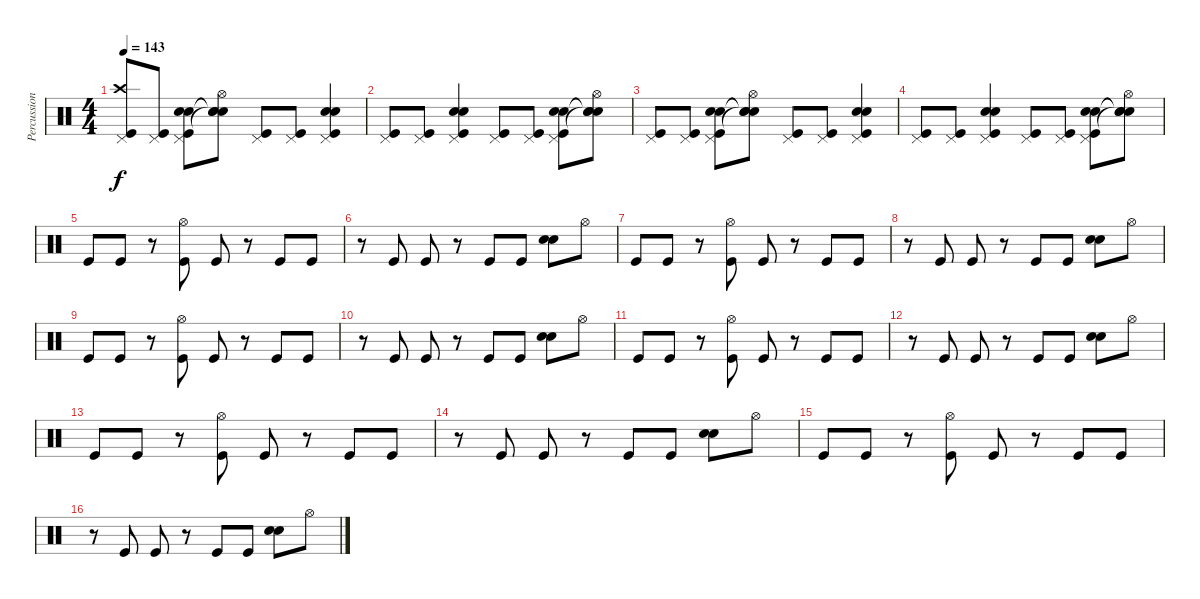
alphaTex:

\track ("Percussions" "Percussion") {instrument percussion}
\staff {score}
\articulation defaults
\ts (4 4)
\tempo 143
\clef neutral
\ks c
("Pedal Hi-Hat (hit)" "Crash high (hit)" "Kick (hit)").8{dy f} ("Pedal Hi-Hat (hit)" "Kick (hit)").8 ("Pedal Hi-Hat (hit)" "Snare (hit) 2" "Snare (hit) 2" "Kick (hit)").8 ("Hi-Hat (open)" "Snare (hit)"{t} "Snare (hit)"{t} "Snare (hit)"{t}).8 ("Pedal Hi-Hat (hit)" "Kick (hit)").8 ("Pedal Hi-Hat (hit)" "Kick (hit)").8 ("Pedal Hi-Hat (hit)" "Snare (hit) 2" "Snare (hit) 2" "Kick (hit)").4 |
("Pedal Hi-Hat (hit)" "Kick (hit)").8 ("Pedal Hi-Hat (hit)" "Kick (hit)").8 ("Pedal Hi-Hat (hit)" "Snare (hit) 2" "Snare (hit) 2" "Kick (hit)").4 ("Pedal Hi-Hat (hit)" "Kick (hit)").8 ("Pedal Hi-Hat (hit)" "Kick (hit)").8 ("Pedal Hi-Hat (hit)" "Snare (hit) 2" "Snare (hit) 2" "Kick (hit)").8 ("Hi-Hat (open)" "Snare (hit)"{t} "Snare (hit)"{t} "Snare (hit)"{t}).8 |
("Pedal Hi-Hat (hit)" "Kick (hit)").8 ("Pedal Hi-Hat (hit)" "Kick (hit)").8 ("Pedal Hi-Hat (hit)" "Snare (hit) 2" "Snare (hit) 2" "Kick (hit)").8 ("Hi-Hat (open)" "Snare (hit)"{t} "Snare (hit)"{t} "Snare (hit)"{t}).8 ("Pedal Hi-Hat (hit)" "Kick (hit)").8 ("Pedal Hi-Hat (hit)" "Kick (hit)").8 ("Pedal Hi-Hat (hit)" "Snare (hit) 2" "Snare (hit) 2" "Kick (hit)").4 |
("Pedal Hi-Hat (hit)" "Kick (hit)").8 ("Pedal Hi-Hat (hit)" "Kick (hit)").8 ("Pedal Hi-Hat (hit)" "Snare (hit) 2" "Snare (hit) 2" "Kick (hit)").4 ("Pedal Hi-Hat (hit)" "Kick (hit)").8 ("Pedal Hi-Hat (hit)" "Kick (hit)").8 ("Pedal Hi-Hat (hit)" "Snare (hit) 2" "Snare (hit) 2" "Kick (hit)").8 ("Hi-Hat (open)" "Snare (hit)"{t} "Snare (hit)"{t} "Snare (hit)"{t}).8 |
"Kick (hit)".8 "Kick (hit)".8 r.8 ("Hi-Hat (open)" "Kick (hit)").8 "Kick (hit)".8 r.8 "Kick (hit)".8 "Kick (hit)".8 |
r.8 "Kick (hit)".8 "Kick (hit)".8 r.8 "Kick (hit)".8 "Kick (hit)".8 ("Snare (hit) 2" "Snare (hit) 2").8 "Hi-Hat (open)".8 |
"Kick (hit)".8 "Kick (hit)".8 r.8 ("Hi-Hat (open)" "Kick (hit)").8 "Kick (hit)".8 r.8 "Kick (hit)".8 "Kick (hit)".8 |
r.8 "Kick (hit)".8 "Kick (hit)".8 r.8 "Kick (hit)".8 "Kick (hit)".8 ("Snare (hit) 2" "Snare (hit) 2").8 "Hi-Hat (open)".8 |
"Kick (hit)".8 "Kick (hit)".8 r.8 ("Hi-Hat (open)" "Kick (hit)").8 "Kick (hit)".8 r.8 "Kick (hit)".8 "Kick (hit)".8 |
r.8 "Kick (hit)".8 "Kick (hit)".8 r.8 "Kick (hit)".8 "Kick (hit)".8 ("Snare (hit) 2" "Snare (hit) 2").8 "Hi-Hat (open)".8 |
"Kick (hit)".8 "Kick (hit)".8 r.8 ("Hi-Hat (open)" "Kick (hit)").8 "Kick (hit)".8 r.8 "Kick (hit)".8 "Kick (hit)".8 |
r.8 "Kick (hit)".8 "Kick (hit)".8 r.8 "Kick (hit)".8 "Kick (hit)".8 ("Snare (hit) 2" "Snare (hit) 2").8 "Hi-Hat (open)".8 |
"Kick (hit)".8 "Kick (hit)".8 r.8 ("Hi-Hat (open)" "Kick (hit)").8 "Kick (hit)".8 r.8 "Kick (hit)".8 "Kick (hit)".8 |
r.8 "Kick (hit)".8 "Kick (hit)".8 r.8 "Kick (hit)".8 "Kick (hit)".8 ("Snare (hit) 2" "Snare (hit) 2").8 "Hi-Hat (open)".8 |
"Kick (hit)".8 "Kick (hit)".8 r.8 ("Hi-Hat (open)" "Kick (hit)").8 "Kick (hit)".8 r.8 "Kick (hit)".8 "Kick (hit)".8 |
r.8 "Kick (hit)".8 "Kick (hit)".8 r.8 "Kick (hit)".8 "Kick (hit)".8 ("Snare (hit) 2" "Snare (hit) 2").8 "Hi-Hat (open)".8
